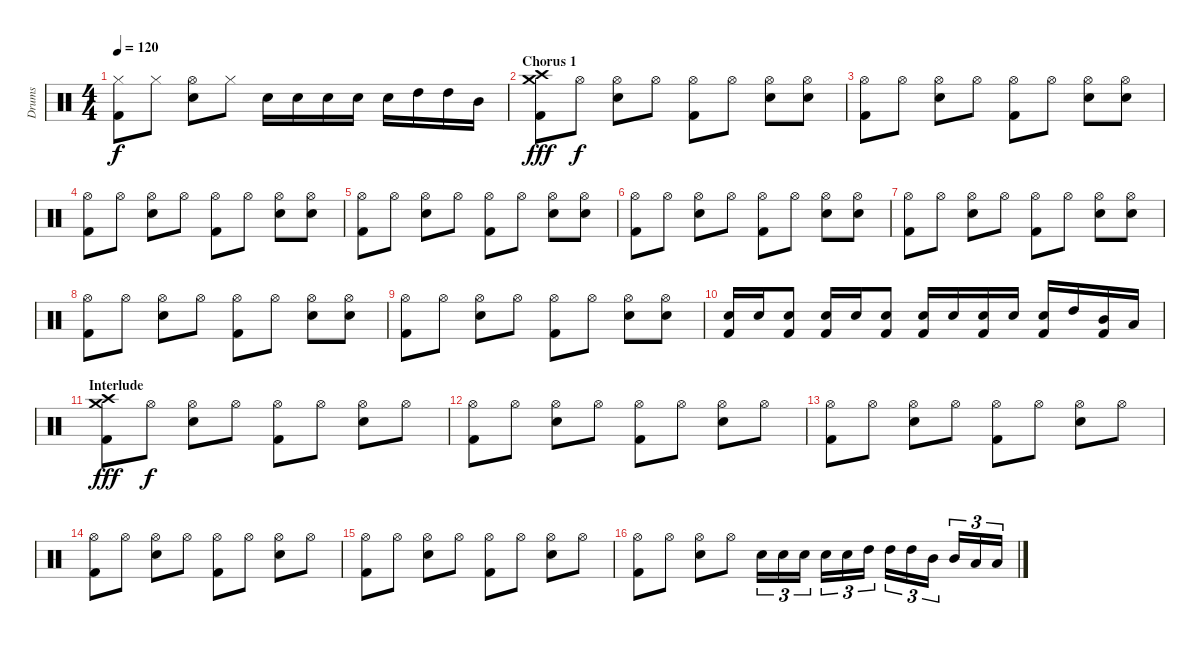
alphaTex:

\track ("Drums" "Drums") {instrument percussion}
\staff {score}
\articulation defaults
\ts (4 4)
\tempo 120
\clef neutral
\ks c
("Hi-Hat (closed)" "Kick (hit) 2").8{dy f} "Hi-Hat (closed)".8 ("Hi-Hat (open)" "Snare (hit) 2").8 "Hi-Hat (closed)".8 "Snare (hit) 2".16 "Snare (hit) 2".16 "Snare (hit) 2".16 "Snare (hit) 2".16 "Snare (hit) 2".16 "High Tom (hit)".16 "High Tom (hit)".16 "Mid Tom (hit)".16 |
\section ("" "Chorus 1")
("Crash high (hit)" "Crash medium (hit)" "Kick (hit) 2").8{dy fff} "Hi-Hat (open)".8{dy f} ("Hi-Hat (open)" "Snare (hit) 2").8 "Hi-Hat (open)".8 ("Hi-Hat (open)" "Kick (hit) 2").8 "Hi-Hat (open)".8 ("Hi-Hat (open)" "Snare (hit) 2").8 ("Hi-Hat (open)" "Snare (hit) 2").8 |
("Hi-Hat (open)" "Kick (hit) 2").8 "Hi-Hat (open)".8 ("Hi-Hat (open)" "Snare (hit) 2").8 "Hi-Hat (open)".8 ("Hi-Hat (open)" "Kick (hit) 2").8 "Hi-Hat (open)".8 ("Hi-Hat (open)" "Snare (hit) 2").8 ("Hi-Hat (open)" "Snare (hit) 2").8 |
("Hi-Hat (open)" "Kick (hit) 2").8 "Hi-Hat (open)".8 ("Hi-Hat (open)" "Snare (hit) 2").8 "Hi-Hat (open)".8 ("Hi-Hat (open)" "Kick (hit) 2").8 "Hi-Hat (open)".8 ("Hi-Hat (open)" "Snare (hit) 2").8 ("Hi-Hat (open)" "Snare (hit) 2").8 |
("Hi-Hat (open)" "Kick (hit) 2").8 "Hi-Hat (open)".8 ("Hi-Hat (open)" "Snare (hit) 2").8 "Hi-Hat (open)".8 ("Hi-Hat (open)" "Kick (hit) 2").8 "Hi-Hat (open)".8 ("Hi-Hat (open)" "Snare (hit) 2").8 ("Hi-Hat (open)" "Snare (hit) 2").8 |
("Hi-Hat (open)" "Kick (hit) 2").8 "Hi-Hat (open)".8 ("Hi-Hat (open)" "Snare (hit) 2").8 "Hi-Hat (open)".8 ("Hi-Hat (open)" "Kick (hit) 2").8 "Hi-Hat (open)".8 ("Hi-Hat (open)" "Snare (hit) 2").8 ("Hi-Hat (open)" "Snare (hit) 2").8 |
("Hi-Hat (open)" "Kick (hit) 2").8 "Hi-Hat (open)".8 ("Hi-Hat (open)" "Snare (hit) 2").8 "Hi-Hat (open)".8 ("Hi-Hat (open)" "Kick (hit) 2").8 "Hi-Hat (open)".8 ("Hi-Hat (open)" "Snare (hit) 2").8 ("Hi-Hat (open)" "Snare (hit) 2").8 |
("Hi-Hat (open)" "Kick (hit) 2").8 "Hi-Hat (open)".8 ("Hi-Hat (open)" "Snare (hit) 2").8 "Hi-Hat (open)".8 ("Hi-Hat (open)" "Kick (hit) 2").8 "Hi-Hat (open)".8 ("Hi-Hat (open)" "Snare (hit) 2").8 ("Hi-Hat (open)" "Snare (hit) 2").8 |
("Hi-Hat (open)" "Kick (hit) 2").8 "Hi-Hat (open)".8 ("Hi-Hat (open)" "Snare (hit) 2").8 "Hi-Hat (open)".8 ("Hi-Hat (open)" "Kick (hit) 2").8 "Hi-Hat (open)".8 ("Hi-Hat (open)" "Snare (hit) 2").8 ("Hi-Hat (open)" "Snare (hit) 2").8 |
("Snare (hit) 2" "Kick (hit) 2").16 "Snare (hit) 2".16 ("Snare (hit) 2" "Kick (hit) 2").8 ("Snare (hit) 2" "Kick (hit) 2").16 "Snare (hit) 2".16 ("Snare (hit) 2" "Kick (hit) 2").8 ("Snare (hit) 2" "Kick (hit) 2").16 "Snare (hit) 2".16 ("Snare (hit) 2" "Kick (hit) 2").16 "Snare (hit) 2".16 ("Snare (hit) 2" "Kick (hit) 2").16 "High Tom (hit)".16 ("Mid Tom (hit)" "Kick (hit) 2").16 "Low Tom (hit)".16 |
\section ("" "Interlude")
("Crash high (hit)" "Crash medium (hit)" "Kick (hit) 2").8{dy fff} "Hi-Hat (open)".8{dy f} ("Hi-Hat (open)" "Snare (hit) 2").8 "Hi-Hat (open)".8 ("Hi-Hat (open)" "Kick (hit) 2").8 "Hi-Hat (open)".8 ("Hi-Hat (open)" "Snare (hit) 2").8 "Hi-Hat (open)".8 |
("Hi-Hat (open)" "Kick (hit) 2").8 "Hi-Hat (open)".8 ("Hi-Hat (open)" "Snare (hit) 2").8 "Hi-Hat (open)".8 ("Hi-Hat (open)" "Kick (hit) 2").8 "Hi-Hat (open)".8 ("Hi-Hat (open)" "Snare (hit) 2").8 "Hi-Hat (open)".8 |
("Hi-Hat (open)" "Kick (hit) 2").8 "Hi-Hat (open)".8 ("Hi-Hat (open)" "Snare (hit) 2").8 "Hi-Hat (open)".8 ("Hi-Hat (open)" "Kick (hit) 2").8 "Hi-Hat (open)".8 ("Hi-Hat (open)" "Snare (hit) 2").8 "Hi-Hat (open)".8 |
("Hi-Hat (open)" "Kick (hit) 2").8 "Hi-Hat (open)".8 ("Hi-Hat (open)" "Snare (hit) 2").8 "Hi-Hat (open)".8 ("Hi-Hat (open)" "Kick (hit) 2").8 "Hi-Hat (open)".8 ("Hi-Hat (open)" "Snare (hit) 2").8 "Hi-Hat (open)".8 |
("Hi-Hat (open)" "Kick (hit) 2").8 "Hi-Hat (open)".8 ("Hi-Hat (open)" "Snare (hit) 2").8 "Hi-Hat (open)".8 ("Hi-Hat (open)" "Kick (hit) 2").8 "Hi-Hat (open)".8 ("Hi-Hat (open)" "Snare (hit) 2").8 "Hi-Hat (open)".8 |
("Hi-Hat (open)" "Kick (hit) 2").8 "Hi-Hat (open)".8 ("Hi-Hat (open)" "Snare (hit) 2").8 "Hi-Hat (open)".8 "Snare (hit) 2".16{tu (3 2)} "Snare (hit) 2".16{tu (3 2)} "Snare (hit) 2".16{tu (3 2)} "Snare (hit) 2".16{tu (3 2)} "Snare (hit) 2".16{tu (3 2)} "High Tom (hit)".16{tu (3 2)} "High Tom (hit)".16{tu (3 2)} "High Tom (hit)".16{tu (3 2)} "Mid Tom (hit)".16{tu (3 2)} "Mid Tom (hit)".16{tu (3 2)} "Low Tom (hit)".16{tu (3 2)} "Low Tom (hit)".16{tu (3 2)}
